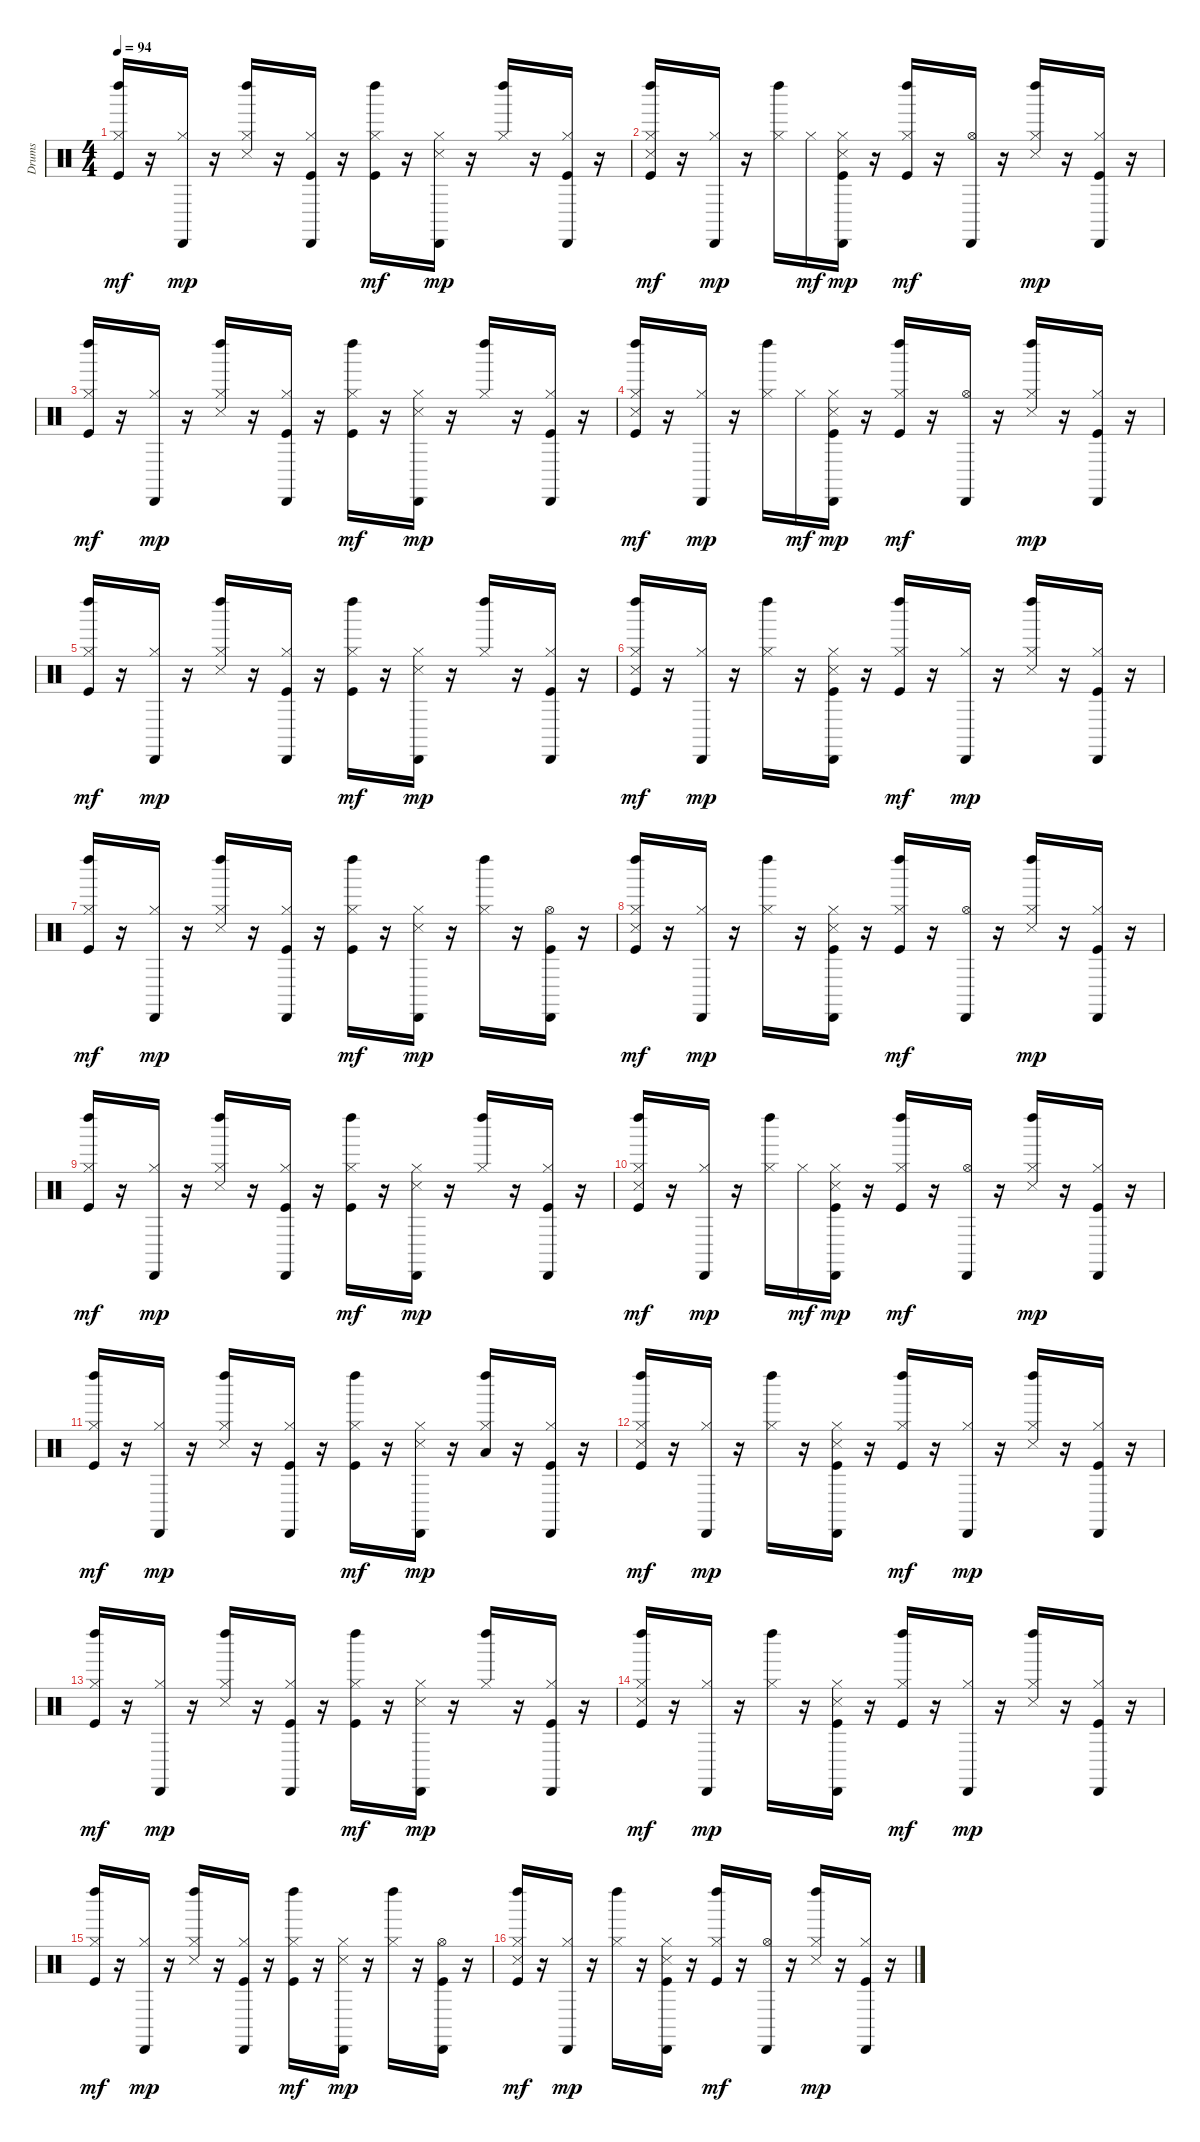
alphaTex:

\track ("Drums" "Drums") {instrument percussion}
\staff {score}
\articulation defaults
\ts (4 4)
\tempo 94
\clef neutral
\ks c
("Left Maraca (hit)" "Hi-Hat (closed)" "Kick (hit)").16{dy mf} r.16 ("Cabasa (hit)" "Hi-Hat (closed)").16{dy mp} r.16 ("Left Maraca (hit)" "Hi-Hat (closed)" "Snare (side stick) 3").16 r.16 ("Cabasa (hit)" "Hi-Hat (closed)" "Kick (hit)").16 r.16 ("Left Maraca (hit)" "Hi-Hat (closed)" "Kick (hit)").16{dy mf} r.16 ("Cabasa (hit)" "Hi-Hat (closed)" "Snare (side stick) 3").16{dy mp} r.16 ("Left Maraca (hit)" "Hi-Hat (closed)").16 r.16 ("Cabasa (hit)" "Hi-Hat (closed)" "Kick (hit)").16 r.16 |
("Left Maraca (hit)" "Hi-Hat (closed)" "Snare (side stick) 3" "Kick (hit)").16{dy mf} r.16 ("Cabasa (hit)" "Hi-Hat (closed)").16{dy mp} r.16 ("Left Maraca (hit)" "Hi-Hat (closed)").16 "Hi-Hat (closed)".16{dy mf} ("Cabasa (hit)" "Hi-Hat (closed)" "Snare (side stick) 3" "Kick (hit)").16{dy mp} r.16 ("Left Maraca (hit)" "Hi-Hat (closed)" "Kick (hit)").16{dy mf} r.16 ("Cabasa (hit)" "Hi-Hat (open)").16 r.16 ("Left Maraca (hit)" "Hi-Hat (closed)" "Snare (side stick) 3").16{dy mp} r.16 ("Cabasa (hit)" "Hi-Hat (closed)" "Kick (hit)").16 r.16 |
("Left Maraca (hit)" "Hi-Hat (closed)" "Kick (hit)").16{dy mf} r.16 ("Cabasa (hit)" "Hi-Hat (closed)").16{dy mp} r.16 ("Left Maraca (hit)" "Hi-Hat (closed)" "Snare (side stick) 3").16 r.16 ("Cabasa (hit)" "Hi-Hat (closed)" "Kick (hit)").16 r.16 ("Left Maraca (hit)" "Hi-Hat (closed)" "Kick (hit)").16{dy mf} r.16 ("Cabasa (hit)" "Hi-Hat (closed)" "Snare (side stick) 3").16{dy mp} r.16 ("Left Maraca (hit)" "Hi-Hat (closed)").16 r.16 ("Cabasa (hit)" "Hi-Hat (closed)" "Kick (hit)").16 r.16 |
("Left Maraca (hit)" "Hi-Hat (closed)" "Snare (side stick) 3" "Kick (hit)").16{dy mf} r.16 ("Cabasa (hit)" "Hi-Hat (closed)").16{dy mp} r.16 ("Left Maraca (hit)" "Hi-Hat (closed)").16 "Hi-Hat (closed)".16{dy mf} ("Cabasa (hit)" "Hi-Hat (closed)" "Snare (side stick) 3" "Kick (hit)").16{dy mp} r.16 ("Left Maraca (hit)" "Hi-Hat (closed)" "Kick (hit)").16{dy mf} r.16 ("Cabasa (hit)" "Hi-Hat (open)").16 r.16 ("Left Maraca (hit)" "Hi-Hat (closed)" "Snare (side stick) 3").16{dy mp} r.16 ("Cabasa (hit)" "Hi-Hat (closed)" "Kick (hit)").16 r.16 |
("Left Maraca (hit)" "Hi-Hat (closed)" "Kick (hit)").16{dy mf} r.16 ("Cabasa (hit)" "Hi-Hat (closed)").16{dy mp} r.16 ("Left Maraca (hit)" "Hi-Hat (closed)" "Snare (side stick) 3").16 r.16 ("Cabasa (hit)" "Hi-Hat (closed)" "Kick (hit)").16 r.16 ("Left Maraca (hit)" "Hi-Hat (closed)" "Kick (hit)").16{dy mf} r.16 ("Cabasa (hit)" "Hi-Hat (closed)" "Snare (side stick) 3").16{dy mp} r.16 ("Left Maraca (hit)" "Hi-Hat (closed)").16 r.16 ("Cabasa (hit)" "Hi-Hat (closed)" "Kick (hit)").16 r.16 |
("Left Maraca (hit)" "Hi-Hat (closed)" "Snare (side stick) 3" "Kick (hit)").16{dy mf} r.16 ("Cabasa (hit)" "Hi-Hat (closed)").16{dy mp} r.16 ("Left Maraca (hit)" "Hi-Hat (closed)").16 r.16 ("Cabasa (hit)" "Hi-Hat (closed)" "Snare (side stick) 3" "Kick (hit)").16 r.16 ("Left Maraca (hit)" "Hi-Hat (closed)" "Kick (hit)").16{dy mf} r.16 ("Cabasa (hit)" "Hi-Hat (closed)").16{dy mp} r.16 ("Left Maraca (hit)" "Hi-Hat (closed)" "Snare (side stick) 3").16 r.16 ("Cabasa (hit)" "Hi-Hat (closed)" "Kick (hit)").16 r.16 |
("Left Maraca (hit)" "Hi-Hat (closed)" "Kick (hit)").16{dy mf} r.16 ("Cabasa (hit)" "Hi-Hat (closed)").16{dy mp} r.16 ("Left Maraca (hit)" "Hi-Hat (closed)" "Snare (side stick) 3").16 r.16 ("Cabasa (hit)" "Hi-Hat (closed)" "Kick (hit)").16 r.16 ("Left Maraca (hit)" "Hi-Hat (closed)" "Kick (hit)").16{dy mf} r.16 ("Cabasa (hit)" "Hi-Hat (closed)" "Snare (side stick) 3").16{dy mp} r.16 ("Left Maraca (hit)" "Hi-Hat (closed)").16 r.16 ("Cabasa (hit)" "Hi-Hat (open)" "Kick (hit)").16 r.16 |
("Left Maraca (hit)" "Hi-Hat (closed)" "Snare (side stick) 3" "Kick (hit)").16{dy mf} r.16 ("Cabasa (hit)" "Hi-Hat (closed)").16{dy mp} r.16 ("Left Maraca (hit)" "Hi-Hat (closed)").16 r.16 ("Cabasa (hit)" "Hi-Hat (closed)" "Snare (side stick) 3" "Kick (hit)").16 r.16 ("Left Maraca (hit)" "Hi-Hat (closed)" "Kick (hit)").16{dy mf} r.16 ("Cabasa (hit)" "Hi-Hat (open)").16 r.16 ("Left Maraca (hit)" "Hi-Hat (closed)" "Snare (side stick) 3").16{dy mp} r.16 ("Cabasa (hit)" "Hi-Hat (closed)" "Kick (hit)").16 r.16 |
("Left Maraca (hit)" "Hi-Hat (closed)" "Kick (hit)").16{dy mf} r.16 ("Cabasa (hit)" "Hi-Hat (closed)").16{dy mp} r.16 ("Left Maraca (hit)" "Hi-Hat (closed)" "Snare (side stick) 3").16 r.16 ("Cabasa (hit)" "Hi-Hat (closed)" "Kick (hit)").16 r.16 ("Left Maraca (hit)" "Hi-Hat (closed)" "Kick (hit)").16{dy mf} r.16 ("Cabasa (hit)" "Hi-Hat (closed)" "Snare (side stick) 3").16{dy mp} r.16 ("Left Maraca (hit)" "Hi-Hat (closed)").16 r.16 ("Cabasa (hit)" "Hi-Hat (closed)" "Kick (hit)").16 r.16 |
("Left Maraca (hit)" "Hi-Hat (closed)" "Snare (side stick) 3" "Kick (hit)").16{dy mf} r.16 ("Cabasa (hit)" "Hi-Hat (closed)").16{dy mp} r.16 ("Left Maraca (hit)" "Hi-Hat (closed)").16 "Hi-Hat (closed)".16{dy mf} ("Cabasa (hit)" "Hi-Hat (closed)" "Snare (side stick) 3" "Kick (hit)").16{dy mp} r.16 ("Left Maraca (hit)" "Hi-Hat (closed)" "Kick (hit)").16{dy mf} r.16 ("Cabasa (hit)" "Hi-Hat (open)").16 r.16 ("Left Maraca (hit)" "Hi-Hat (closed)" "Snare (side stick) 3").16{dy mp} r.16 ("Cabasa (hit)" "Hi-Hat (closed)" "Kick (hit)").16 r.16 |
("Left Maraca (hit)" "Hi-Hat (closed)" "Kick (hit)").16{dy mf} r.16 ("Cabasa (hit)" "Hi-Hat (closed)").16{dy mp} r.16 ("Left Maraca (hit)" "Hi-Hat (closed)" "Snare (side stick) 3").16 r.16 ("Cabasa (hit)" "Hi-Hat (closed)" "Kick (hit)").16 r.16 ("Left Maraca (hit)" "Hi-Hat (closed)" "Kick (hit)").16{dy mf} r.16 ("Cabasa (hit)" "Hi-Hat (closed)" "Snare (side stick) 3").16{dy mp} r.16 ("Left Maraca (hit)" "Low Tom (hit)" "Hi-Hat (closed)").16 r.16 ("Cabasa (hit)" "Hi-Hat (closed)" "Kick (hit)").16 r.16 |
("Left Maraca (hit)" "Hi-Hat (closed)" "Snare (side stick) 3" "Kick (hit)").16{dy mf} r.16 ("Cabasa (hit)" "Hi-Hat (closed)").16{dy mp} r.16 ("Left Maraca (hit)" "Hi-Hat (closed)").16 r.16 ("Cabasa (hit)" "Hi-Hat (closed)" "Snare (side stick) 3" "Kick (hit)").16 r.16 ("Left Maraca (hit)" "Hi-Hat (closed)" "Kick (hit)").16{dy mf} r.16 ("Cabasa (hit)" "Hi-Hat (closed)").16{dy mp} r.16 ("Left Maraca (hit)" "Hi-Hat (closed)" "Snare (side stick) 3").16 r.16 ("Cabasa (hit)" "Hi-Hat (closed)" "Kick (hit)").16 r.16 |
("Left Maraca (hit)" "Hi-Hat (closed)" "Kick (hit)").16{dy mf} r.16 ("Cabasa (hit)" "Hi-Hat (closed)").16{dy mp} r.16 ("Left Maraca (hit)" "Hi-Hat (closed)" "Snare (side stick) 3").16 r.16 ("Cabasa (hit)" "Hi-Hat (closed)" "Kick (hit)").16 r.16 ("Left Maraca (hit)" "Hi-Hat (closed)" "Kick (hit)").16{dy mf} r.16 ("Cabasa (hit)" "Hi-Hat (closed)" "Snare (side stick) 3").16{dy mp} r.16 ("Left Maraca (hit)" "Hi-Hat (closed)").16 r.16 ("Cabasa (hit)" "Hi-Hat (closed)" "Kick (hit)").16 r.16 |
("Left Maraca (hit)" "Hi-Hat (closed)" "Snare (side stick) 3" "Kick (hit)").16{dy mf} r.16 ("Cabasa (hit)" "Hi-Hat (closed)").16{dy mp} r.16 ("Left Maraca (hit)" "Hi-Hat (closed)").16 r.16 ("Cabasa (hit)" "Hi-Hat (closed)" "Snare (side stick) 3" "Kick (hit)").16 r.16 ("Left Maraca (hit)" "Hi-Hat (closed)" "Kick (hit)").16{dy mf} r.16 ("Cabasa (hit)" "Hi-Hat (closed)").16{dy mp} r.16 ("Left Maraca (hit)" "Hi-Hat (closed)" "Snare (side stick) 3").16 r.16 ("Cabasa (hit)" "Hi-Hat (closed)" "Kick (hit)").16 r.16 |
("Left Maraca (hit)" "Hi-Hat (closed)" "Kick (hit)").16{dy mf} r.16 ("Cabasa (hit)" "Hi-Hat (closed)").16{dy mp} r.16 ("Left Maraca (hit)" "Hi-Hat (closed)" "Snare (side stick) 3").16 r.16 ("Cabasa (hit)" "Hi-Hat (closed)" "Kick (hit)").16 r.16 ("Left Maraca (hit)" "Hi-Hat (closed)" "Kick (hit)").16{dy mf} r.16 ("Cabasa (hit)" "Hi-Hat (closed)" "Snare (side stick) 3").16{dy mp} r.16 ("Left Maraca (hit)" "Hi-Hat (closed)").16 r.16 ("Cabasa (hit)" "Hi-Hat (open)" "Kick (hit)").16 r.16 |
("Left Maraca (hit)" "Hi-Hat (closed)" "Snare (side stick) 3" "Kick (hit)").16{dy mf} r.16 ("Cabasa (hit)" "Hi-Hat (closed)").16{dy mp} r.16 ("Left Maraca (hit)" "Hi-Hat (closed)").16 r.16 ("Cabasa (hit)" "Hi-Hat (closed)" "Snare (side stick) 3" "Kick (hit)").16 r.16 ("Left Maraca (hit)" "Hi-Hat (closed)" "Kick (hit)").16{dy mf} r.16 ("Cabasa (hit)" "Hi-Hat (open)").16 r.16 ("Left Maraca (hit)" "Hi-Hat (closed)" "Snare (side stick) 3").16{dy mp} r.16 ("Cabasa (hit)" "Hi-Hat (closed)" "Kick (hit)").16 r.16
